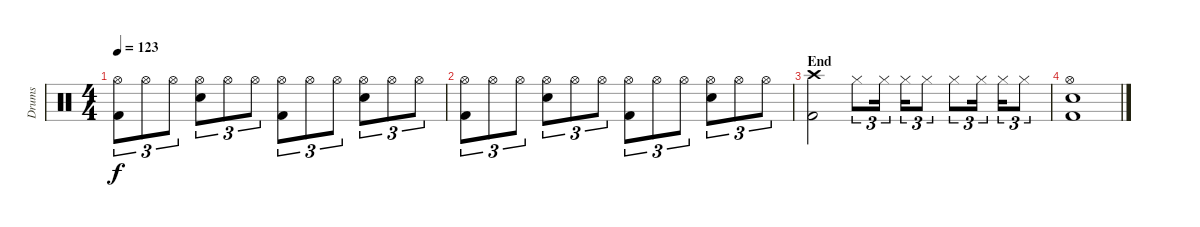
\track ("Drums" "Drums") {instrument percussion}
\staff {score}
\articulation defaults
\ts (4 4)
\tempo 123
\clef neutral
\ks c
("Hi-Hat (open)" "Kick (hit) 2").8{tu (3 2) dy f} "Hi-Hat (open)".8{tu (3 2)} "Hi-Hat (open)".8{tu (3 2)} ("Hi-Hat (open)" "Snare (hit) 2").8{tu (3 2)} "Hi-Hat (open)".8{tu (3 2)} "Hi-Hat (open)".8{tu (3 2)} ("Hi-Hat (open)" "Kick (hit) 2").8{tu (3 2)} "Hi-Hat (open)".8{tu (3 2)} "Hi-Hat (open)".8{tu (3 2)} ("Hi-Hat (open)" "Snare (hit) 2").8{tu (3 2)} "Hi-Hat (open)".8{tu (3 2)} "Hi-Hat (open)".8{tu (3 2)} |
("Hi-Hat (open)" "Kick (hit) 2").8{tu (3 2)} "Hi-Hat (open)".8{tu (3 2)} "Hi-Hat (open)".8{tu (3 2)} ("Hi-Hat (open)" "Snare (hit) 2").8{tu (3 2)} "Hi-Hat (open)".8{tu (3 2)} "Hi-Hat (open)".8{tu (3 2)} ("Hi-Hat (open)" "Kick (hit) 2").8{tu (3 2)} "Hi-Hat (open)".8{tu (3 2)} "Hi-Hat (open)".8{tu (3 2)} ("Hi-Hat (open)" "Snare (hit) 2").8{tu (3 2)} "Hi-Hat (open)".8{tu (3 2)} "Hi-Hat (open)".8{tu (3 2)} |
\section ("" "End")
("Crash high (hit)" "Kick (hit) 2").2 "Hi-Hat (closed)".8{tu (3 2)} "Hi-Hat (closed)".16{tu (3 2)} "Hi-Hat (closed)".16{tu (3 2)} "Hi-Hat (closed)".8{tu (3 2)} "Hi-Hat (closed)".8{tu (3 2)} "Hi-Hat (closed)".16{tu (3 2)} "Hi-Hat (closed)".16{tu (3 2)} "Hi-Hat (closed)".8{tu (3 2)} |
("Hi-Hat (open)" "Snare (hit) 2" "Kick (hit) 2").1
